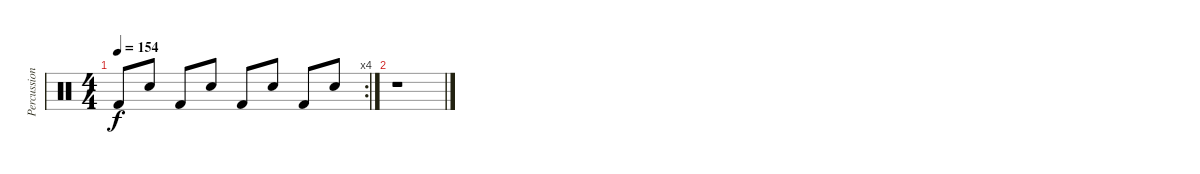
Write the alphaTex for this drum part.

\track ("Percussions" "Percussion") {instrument percussion}
\staff {score}
\articulation defaults
\rc 4
\ts (4 4)
\tempo 154
\clef neutral
\ks c "Kick (hit) 2".8{dy f} "Electric Snare (hit)".8 "Kick (hit) 2".8 "Electric Snare (hit)".8 "Kick (hit) 2".8 "Electric Snare (hit)".8 "Kick (hit) 2".8 "Electric Snare (hit)".8
|
r.1
